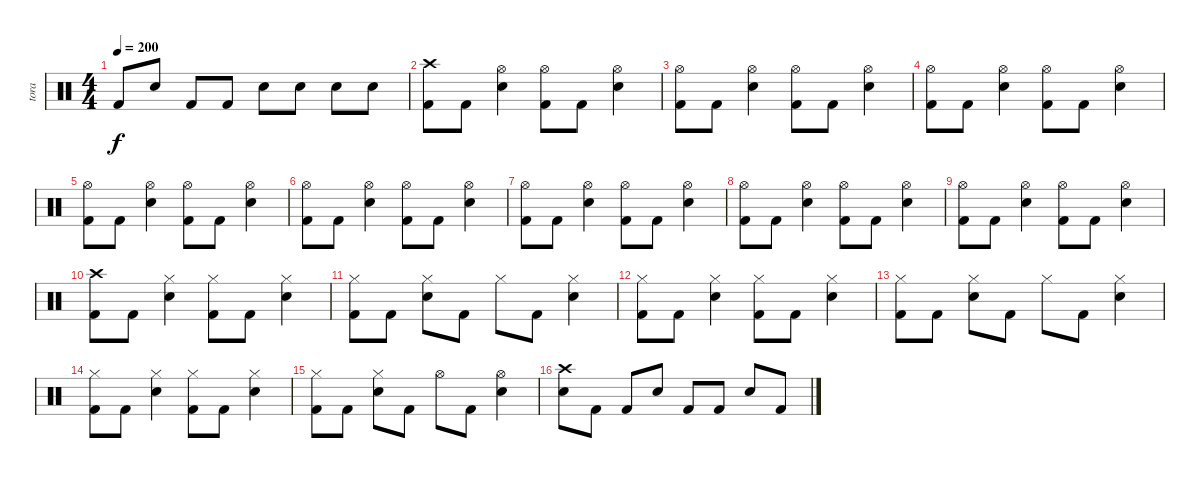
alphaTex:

\track ("tora" "tora") {instrument percussion}
\staff {score}
\articulation defaults
\ts (4 4)
\tempo 200
\clef neutral
\ks c "Kick (hit) 2".8{dy f} "Snare (hit) 2".8 "Kick (hit) 2".8 "Kick (hit) 2".8 "Snare (hit) 2".8 "Snare (hit) 2".8 "Snare (hit) 2".8 "Snare (hit) 2".8
|
("Crash high (hit)" "Kick (hit) 2").8 "Kick (hit) 2".8 ("Hi-Hat (open)" "Snare (hit) 2").4 ("Hi-Hat (open)" "Kick (hit) 2").8 "Kick (hit) 2".8 ("Hi-Hat (open)" "Snare (hit) 2").4 |
("Hi-Hat (open)" "Kick (hit) 2").8 "Kick (hit) 2".8 ("Hi-Hat (open)" "Snare (hit) 2").4 ("Hi-Hat (open)" "Kick (hit) 2").8 "Kick (hit) 2".8 ("Hi-Hat (open)" "Snare (hit) 2").4 |
("Hi-Hat (open)" "Kick (hit) 2").8 "Kick (hit) 2".8 ("Hi-Hat (open)" "Snare (hit) 2").4 ("Hi-Hat (open)" "Kick (hit) 2").8 "Kick (hit) 2".8 ("Hi-Hat (open)" "Snare (hit) 2").4 |
("Hi-Hat (open)" "Kick (hit) 2").8 "Kick (hit) 2".8 ("Hi-Hat (open)" "Snare (hit) 2").4 ("Hi-Hat (open)" "Kick (hit) 2").8 "Kick (hit) 2".8 ("Hi-Hat (open)" "Snare (hit) 2").4 |
("Hi-Hat (open)" "Kick (hit) 2").8 "Kick (hit) 2".8 ("Hi-Hat (open)" "Snare (hit) 2").4 ("Hi-Hat (open)" "Kick (hit) 2").8 "Kick (hit) 2".8 ("Hi-Hat (open)" "Snare (hit) 2").4 |
("Hi-Hat (open)" "Kick (hit) 2").8 "Kick (hit) 2".8 ("Hi-Hat (open)" "Snare (hit) 2").4 ("Hi-Hat (open)" "Kick (hit) 2").8 "Kick (hit) 2".8 ("Hi-Hat (open)" "Snare (hit) 2").4 |
("Hi-Hat (open)" "Kick (hit) 2").8 "Kick (hit) 2".8 ("Hi-Hat (open)" "Snare (hit) 2").4 ("Hi-Hat (open)" "Kick (hit) 2").8 "Kick (hit) 2".8 ("Hi-Hat (open)" "Snare (hit) 2").4 |
("Hi-Hat (open)" "Kick (hit) 2").8 "Kick (hit) 2".8 ("Hi-Hat (open)" "Snare (hit) 2").4 ("Hi-Hat (open)" "Kick (hit) 2").8 "Kick (hit) 2".8 ("Hi-Hat (open)" "Snare (hit) 2").4 |
("Crash high (hit)" "Kick (hit) 2").8 "Kick (hit) 2".8 ("Hi-Hat (closed)" "Snare (hit) 2").4 ("Hi-Hat (closed)" "Kick (hit) 2").8 "Kick (hit) 2".8 ("Hi-Hat (closed)" "Snare (hit) 2").4 |
("Hi-Hat (closed)" "Kick (hit) 2").8 "Kick (hit) 2".8 ("Hi-Hat (closed)" "Snare (hit) 2").8 "Kick (hit) 2".8 "Hi-Hat (closed)".8 "Kick (hit) 2".8 ("Hi-Hat (closed)" "Snare (hit) 2").4 |
("Hi-Hat (closed)" "Kick (hit) 2").8 "Kick (hit) 2".8 ("Hi-Hat (closed)" "Snare (hit) 2").4 ("Hi-Hat (closed)" "Kick (hit) 2").8 "Kick (hit) 2".8 ("Hi-Hat (closed)" "Snare (hit) 2").4 |
("Hi-Hat (closed)" "Kick (hit) 2").8 "Kick (hit) 2".8 ("Hi-Hat (closed)" "Snare (hit) 2").8 "Kick (hit) 2".8 "Hi-Hat (closed)".8 "Kick (hit) 2".8 ("Hi-Hat (closed)" "Snare (hit) 2").4 |
("Hi-Hat (closed)" "Kick (hit) 2").8 "Kick (hit) 2".8 ("Hi-Hat (closed)" "Snare (hit) 2").4 ("Hi-Hat (closed)" "Kick (hit) 2").8 "Kick (hit) 2".8 ("Hi-Hat (closed)" "Snare (hit) 2").4 |
("Hi-Hat (closed)" "Kick (hit) 2").8 "Kick (hit) 2".8 ("Hi-Hat (closed)" "Snare (hit) 2").8 "Kick (hit) 2".8 "Hi-Hat (open)".8 "Kick (hit) 2".8 ("Hi-Hat (open)" "Snare (hit) 2").4 |
("Crash high (hit)" "Snare (hit) 2").8 "Kick (hit) 2".8 "Kick (hit) 2".8 "Snare (hit) 2".8 "Kick (hit) 2".8 "Kick (hit) 2".8 "Snare (hit) 2".8 "Kick (hit) 2".8
